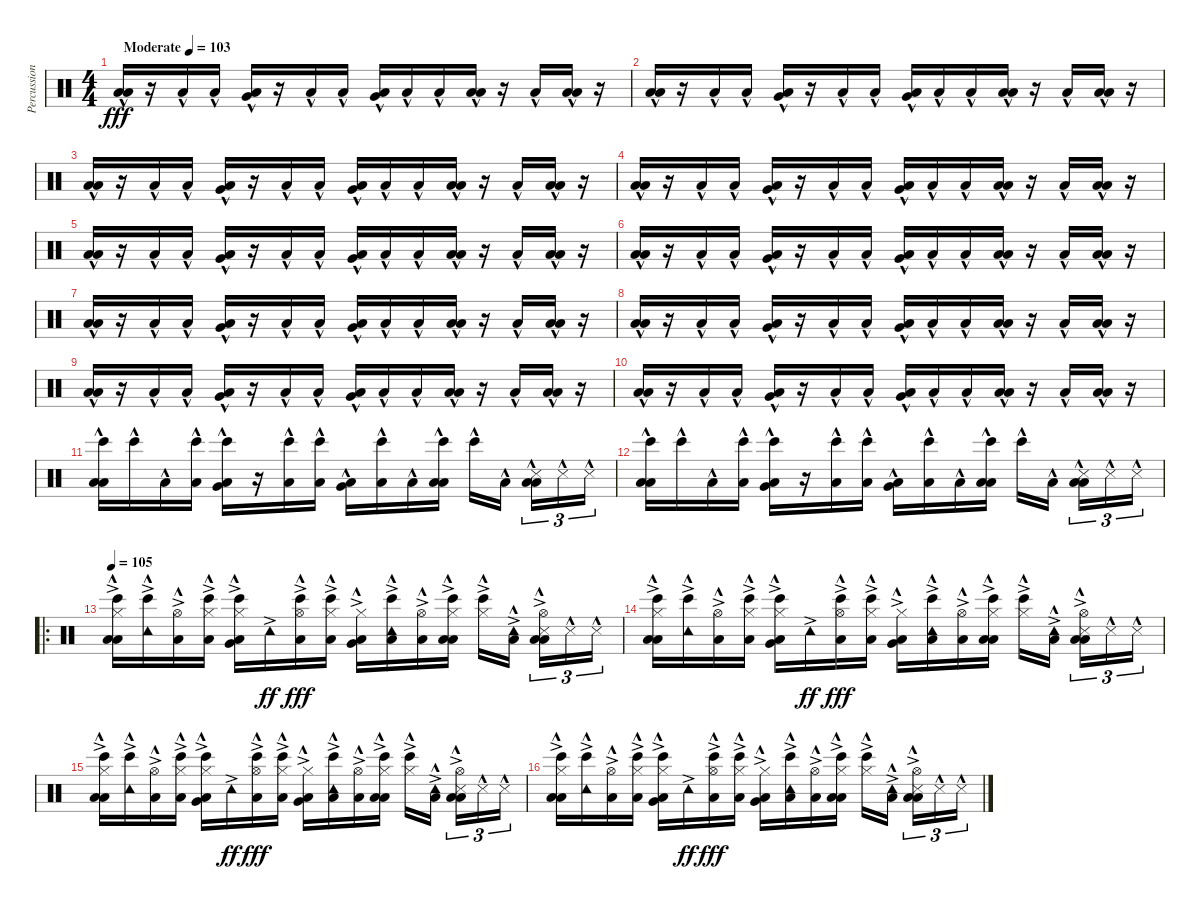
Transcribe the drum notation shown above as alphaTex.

\track ("Percussion" "Percussion") {instrument percussion}
\staff {score}
\articulation defaults
\ts (4 4)
\tempo (103 "Moderate")
\clef neutral
\ks c
("Low Floor Tom (hit)"{hac} "Low Floor Tom (hit)"{hac}).16{dy fff volume 7} r.16{volume 16} "Low Floor Tom (hit)"{hac}.16 "Low Floor Tom (hit)"{hac}.16 ("Very Low Tom (hit)"{hac} "Low Floor Tom (hit)"{hac}).16 r.16 "Low Floor Tom (hit)"{hac}.16 "Low Floor Tom (hit)"{hac}.16 ("Very Low Tom (hit)"{hac} "Low Floor Tom (hit)"{hac}).16 "Low Floor Tom (hit)"{hac}.16 "Low Floor Tom (hit)"{hac}.16 ("Low Floor Tom (hit)"{hac} "Low Floor Tom (hit)"{hac}).16 r.16 "Low Floor Tom (hit)"{hac}.16 ("Low Floor Tom (hit)"{hac} "Low Floor Tom (hit)"{hac}).16 r.16 |
("Low Floor Tom (hit)"{hac} "Low Floor Tom (hit)"{hac}).16 r.16 "Low Floor Tom (hit)"{hac}.16 "Low Floor Tom (hit)"{hac}.16 ("Very Low Tom (hit)"{hac} "Low Floor Tom (hit)"{hac}).16 r.16 "Low Floor Tom (hit)"{hac}.16 "Low Floor Tom (hit)"{hac}.16 ("Very Low Tom (hit)"{hac} "Low Floor Tom (hit)"{hac}).16 "Low Floor Tom (hit)"{hac}.16 "Low Floor Tom (hit)"{hac}.16 ("Low Floor Tom (hit)"{hac} "Low Floor Tom (hit)"{hac}).16 r.16 "Low Floor Tom (hit)"{hac}.16 ("Low Floor Tom (hit)"{hac} "Low Floor Tom (hit)"{hac}).16 r.16 |
("Low Floor Tom (hit)"{hac} "Low Floor Tom (hit)"{hac}).16 r.16 "Low Floor Tom (hit)"{hac}.16 "Low Floor Tom (hit)"{hac}.16 ("Very Low Tom (hit)"{hac} "Low Floor Tom (hit)"{hac}).16 r.16 "Low Floor Tom (hit)"{hac}.16 "Low Floor Tom (hit)"{hac}.16 ("Very Low Tom (hit)"{hac} "Low Floor Tom (hit)"{hac}).16 "Low Floor Tom (hit)"{hac}.16 "Low Floor Tom (hit)"{hac}.16 ("Low Floor Tom (hit)"{hac} "Low Floor Tom (hit)"{hac}).16 r.16 "Low Floor Tom (hit)"{hac}.16 ("Low Floor Tom (hit)"{hac} "Low Floor Tom (hit)"{hac}).16 r.16 |
("Low Floor Tom (hit)"{hac} "Low Floor Tom (hit)"{hac}).16 r.16 "Low Floor Tom (hit)"{hac}.16 "Low Floor Tom (hit)"{hac}.16 ("Very Low Tom (hit)"{hac} "Low Floor Tom (hit)"{hac}).16 r.16 "Low Floor Tom (hit)"{hac}.16 "Low Floor Tom (hit)"{hac}.16 ("Very Low Tom (hit)"{hac} "Low Floor Tom (hit)"{hac}).16 "Low Floor Tom (hit)"{hac}.16 "Low Floor Tom (hit)"{hac}.16 ("Low Floor Tom (hit)"{hac} "Low Floor Tom (hit)"{hac}).16 r.16 "Low Floor Tom (hit)"{hac}.16 ("Low Floor Tom (hit)"{hac} "Low Floor Tom (hit)"{hac}).16 r.16 |
("Low Floor Tom (hit)"{hac} "Low Floor Tom (hit)"{hac}).16 r.16 "Low Floor Tom (hit)"{hac}.16 "Low Floor Tom (hit)"{hac}.16 ("Very Low Tom (hit)"{hac} "Low Floor Tom (hit)"{hac}).16 r.16 "Low Floor Tom (hit)"{hac}.16 "Low Floor Tom (hit)"{hac}.16 ("Very Low Tom (hit)"{hac} "Low Floor Tom (hit)"{hac}).16 "Low Floor Tom (hit)"{hac}.16 "Low Floor Tom (hit)"{hac}.16 ("Low Floor Tom (hit)"{hac} "Low Floor Tom (hit)"{hac}).16 r.16 "Low Floor Tom (hit)"{hac}.16 ("Low Floor Tom (hit)"{hac} "Low Floor Tom (hit)"{hac}).16 r.16 |
("Low Floor Tom (hit)"{hac} "Low Floor Tom (hit)"{hac}).16 r.16 "Low Floor Tom (hit)"{hac}.16 "Low Floor Tom (hit)"{hac}.16 ("Very Low Tom (hit)"{hac} "Low Floor Tom (hit)"{hac}).16 r.16 "Low Floor Tom (hit)"{hac}.16 "Low Floor Tom (hit)"{hac}.16 ("Very Low Tom (hit)"{hac} "Low Floor Tom (hit)"{hac}).16 "Low Floor Tom (hit)"{hac}.16 "Low Floor Tom (hit)"{hac}.16 ("Low Floor Tom (hit)"{hac} "Low Floor Tom (hit)"{hac}).16 r.16 "Low Floor Tom (hit)"{hac}.16 ("Low Floor Tom (hit)"{hac} "Low Floor Tom (hit)"{hac}).16 r.16 |
("Low Floor Tom (hit)"{hac} "Low Floor Tom (hit)"{hac}).16 r.16 "Low Floor Tom (hit)"{hac}.16 "Low Floor Tom (hit)"{hac}.16 ("Very Low Tom (hit)"{hac} "Low Floor Tom (hit)"{hac}).16 r.16 "Low Floor Tom (hit)"{hac}.16 "Low Floor Tom (hit)"{hac}.16 ("Very Low Tom (hit)"{hac} "Low Floor Tom (hit)"{hac}).16 "Low Floor Tom (hit)"{hac}.16 "Low Floor Tom (hit)"{hac}.16 ("Low Floor Tom (hit)"{hac} "Low Floor Tom (hit)"{hac}).16 r.16 "Low Floor Tom (hit)"{hac}.16 ("Low Floor Tom (hit)"{hac} "Low Floor Tom (hit)"{hac}).16 r.16 |
("Low Floor Tom (hit)"{hac} "Low Floor Tom (hit)"{hac}).16 r.16 "Low Floor Tom (hit)"{hac}.16 "Low Floor Tom (hit)"{hac}.16 ("Very Low Tom (hit)"{hac} "Low Floor Tom (hit)"{hac}).16 r.16 "Low Floor Tom (hit)"{hac}.16 "Low Floor Tom (hit)"{hac}.16 ("Very Low Tom (hit)"{hac} "Low Floor Tom (hit)"{hac}).16 "Low Floor Tom (hit)"{hac}.16 "Low Floor Tom (hit)"{hac}.16 ("Low Floor Tom (hit)"{hac} "Low Floor Tom (hit)"{hac}).16 r.16 "Low Floor Tom (hit)"{hac}.16 ("Low Floor Tom (hit)"{hac} "Low Floor Tom (hit)"{hac}).16 r.16 |
("Low Floor Tom (hit)"{hac} "Low Floor Tom (hit)"{hac}).16 r.16 "Low Floor Tom (hit)"{hac}.16 "Low Floor Tom (hit)"{hac}.16 ("Very Low Tom (hit)"{hac} "Low Floor Tom (hit)"{hac}).16 r.16 "Low Floor Tom (hit)"{hac}.16 "Low Floor Tom (hit)"{hac}.16 ("Very Low Tom (hit)"{hac} "Low Floor Tom (hit)"{hac}).16 "Low Floor Tom (hit)"{hac}.16 "Low Floor Tom (hit)"{hac}.16 ("Low Floor Tom (hit)"{hac} "Low Floor Tom (hit)"{hac}).16 r.16 "Low Floor Tom (hit)"{hac}.16 ("Low Floor Tom (hit)"{hac} "Low Floor Tom (hit)"{hac}).16 r.16 |
("Low Floor Tom (hit)"{hac} "Low Floor Tom (hit)"{hac}).16 r.16 "Low Floor Tom (hit)"{hac}.16 "Low Floor Tom (hit)"{hac}.16 ("Very Low Tom (hit)"{hac} "Low Floor Tom (hit)"{hac}).16 r.16 "Low Floor Tom (hit)"{hac}.16 "Low Floor Tom (hit)"{hac}.16 ("Very Low Tom (hit)"{hac} "Low Floor Tom (hit)"{hac}).16 "Low Floor Tom (hit)"{hac}.16 "Low Floor Tom (hit)"{hac}.16 ("Low Floor Tom (hit)"{hac} "Low Floor Tom (hit)"{hac}).16 r.16 "Low Floor Tom (hit)"{hac}.16 ("Low Floor Tom (hit)"{hac} "Low Floor Tom (hit)"{hac}).16 r.16 |
("Bongo High (hit)"{hac} "Low Floor Tom (hit)"{hac} "Low Floor Tom (hit)"{hac}).16 "Bongo High (hit)"{hac}.16 "Low Floor Tom (hit)"{hac}.16 ("Bongo High (hit)"{hac} "Low Floor Tom (hit)"{hac}).16 ("Bongo High (hit)"{hac} "Very Low Tom (hit)"{hac} "Low Floor Tom (hit)"{hac}).16 r.16 ("Bongo High (hit)"{hac} "Low Floor Tom (hit)"{hac}).16 ("Bongo High (hit)"{hac} "Low Floor Tom (hit)"{hac}).16 ("Very Low Tom (hit)"{hac} "Low Floor Tom (hit)"{hac}).16 ("Bongo High (hit)"{hac} "Low Floor Tom (hit)"{hac}).16 "Low Floor Tom (hit)"{hac}.16 ("Bongo High (hit)"{hac} "Low Floor Tom (hit)"{hac} "Low Floor Tom (hit)"{hac}).16 "Bongo High (hit)"{hac}.16 "Low Floor Tom (hit)"{hac}.16{beam splitsecondary} ("Snare (side stick) 3"{hac} "Low Floor Tom (hit)"{hac} "Low Floor Tom (hit)"{hac}).16{tu (3 2)} "Snare (side stick) 3"{hac}.16{tu (3 2)} "Snare (side stick) 3"{hac}.16{tu (3 2)} |
("Bongo High (hit)"{hac} "Low Floor Tom (hit)"{hac} "Low Floor Tom (hit)"{hac}).16 "Bongo High (hit)"{hac}.16 "Low Floor Tom (hit)"{hac}.16 ("Bongo High (hit)"{hac} "Low Floor Tom (hit)"{hac}).16 ("Bongo High (hit)"{hac} "Very Low Tom (hit)"{hac} "Low Floor Tom (hit)"{hac}).16 r.16 ("Bongo High (hit)"{hac} "Low Floor Tom (hit)"{hac}).16 ("Bongo High (hit)"{hac} "Low Floor Tom (hit)"{hac}).16 ("Very Low Tom (hit)"{hac} "Low Floor Tom (hit)"{hac}).16 ("Bongo High (hit)"{hac} "Low Floor Tom (hit)"{hac}).16 "Low Floor Tom (hit)"{hac}.16 ("Bongo High (hit)"{hac} "Low Floor Tom (hit)"{hac} "Low Floor Tom (hit)"{hac}).16 "Bongo High (hit)"{hac}.16 "Low Floor Tom (hit)"{hac}.16{beam splitsecondary} ("Snare (side stick) 3"{hac} "Low Floor Tom (hit)"{hac} "Low Floor Tom (hit)"{hac}).16{tu (3 2)} "Snare (side stick) 3"{hac}.16{tu (3 2)} "Snare (side stick) 3"{hac}.16{tu (3 2)} |
\ro
\tempo 105
("Hi-Hat (closed)"{ac} "Bongo High (hit)"{hac} "Low Floor Tom (hit)"{hac} "Low Floor Tom (hit)"{hac}).16 ("Tambourine (hit)"{ac} "Bongo High (hit)"{hac}).16 ("Hi-Hat (open)"{ac} "Low Floor Tom (hit)"{hac}).16 ("Hi-Hat (closed)"{ac} "Bongo High (hit)"{hac} "Low Floor Tom (hit)"{hac}).16 ("Hi-Hat (closed)"{ac} "Bongo High (hit)"{hac} "Very Low Tom (hit)"{hac} "Low Floor Tom (hit)"{hac}).16 "Tambourine (hit)"{ac}.16{dy ff} ("Hi-Hat (open)"{ac} "Bongo High (hit)"{hac} "Low Floor Tom (hit)"{hac}).16{dy fff} ("Hi-Hat (closed)"{ac} "Bongo High (hit)"{hac} "Low Floor Tom (hit)"{hac}).16 ("Hi-Hat (closed)"{ac} "Very Low Tom (hit)"{hac} "Low Floor Tom (hit)"{hac}).16 ("Tambourine (hit)"{ac} "Bongo High (hit)"{hac} "Low Floor Tom (hit)"{hac}).16 ("Hi-Hat (open)"{ac} "Low Floor Tom (hit)"{hac}).16 ("Hi-Hat (closed)"{ac} "Bongo High (hit)"{hac} "Low Floor Tom (hit)"{hac} "Low Floor Tom (hit)"{hac}).16 ("Hi-Hat (closed)"{ac} "Bongo High (hit)"{hac}).16 ("Tambourine (hit)"{ac} "Low Floor Tom (hit)"{hac}).16{beam splitsecondary} ("Hi-Hat (open)"{ac} "Snare (side stick) 3"{hac} "Low Floor Tom (hit)"{hac} "Low Floor Tom (hit)"{hac}).16{tu (3 2)} "Snare (side stick) 3"{hac}.16{tu (3 2)} "Snare (side stick) 3"{hac}.16{tu (3 2)} |
("Hi-Hat (closed)"{ac} "Bongo High (hit)"{hac} "Low Floor Tom (hit)"{hac} "Low Floor Tom (hit)"{hac}).16 ("Tambourine (hit)"{ac} "Bongo High (hit)"{hac}).16 ("Hi-Hat (open)"{ac} "Low Floor Tom (hit)"{hac}).16 ("Hi-Hat (closed)"{ac} "Bongo High (hit)"{hac} "Low Floor Tom (hit)"{hac}).16 ("Hi-Hat (closed)"{ac} "Bongo High (hit)"{hac} "Very Low Tom (hit)"{hac} "Low Floor Tom (hit)"{hac}).16 "Tambourine (hit)"{ac}.16{dy ff} ("Hi-Hat (open)"{ac} "Bongo High (hit)"{hac} "Low Floor Tom (hit)"{hac}).16{dy fff} ("Hi-Hat (closed)"{ac} "Bongo High (hit)"{hac} "Low Floor Tom (hit)"{hac}).16 ("Hi-Hat (closed)"{ac} "Very Low Tom (hit)"{hac} "Low Floor Tom (hit)"{hac}).16 ("Tambourine (hit)"{ac} "Bongo High (hit)"{hac} "Low Floor Tom (hit)"{hac}).16 ("Hi-Hat (open)"{ac} "Low Floor Tom (hit)"{hac}).16 ("Hi-Hat (closed)"{ac} "Bongo High (hit)"{hac} "Low Floor Tom (hit)"{hac} "Low Floor Tom (hit)"{hac}).16 ("Hi-Hat (closed)"{ac} "Bongo High (hit)"{hac}).16 ("Tambourine (hit)"{ac} "Low Floor Tom (hit)"{hac}).16{beam splitsecondary} ("Hi-Hat (open)"{ac} "Snare (side stick) 3"{hac} "Low Floor Tom (hit)"{hac} "Low Floor Tom (hit)"{hac}).16{tu (3 2)} "Snare (side stick) 3"{hac}.16{tu (3 2)} "Snare (side stick) 3"{hac}.16{tu (3 2)} |
("Hi-Hat (closed)"{ac} "Bongo High (hit)"{hac} "Low Floor Tom (hit)"{hac} "Low Floor Tom (hit)"{hac}).16 ("Tambourine (hit)"{ac} "Bongo High (hit)"{hac}).16 ("Hi-Hat (open)"{ac} "Low Floor Tom (hit)"{hac}).16 ("Hi-Hat (closed)"{ac} "Bongo High (hit)"{hac} "Low Floor Tom (hit)"{hac}).16 ("Hi-Hat (closed)"{ac} "Bongo High (hit)"{hac} "Very Low Tom (hit)"{hac} "Low Floor Tom (hit)"{hac}).16 "Tambourine (hit)"{ac}.16{dy ff} ("Hi-Hat (open)"{ac} "Bongo High (hit)"{hac} "Low Floor Tom (hit)"{hac}).16{dy fff} ("Hi-Hat (closed)"{ac} "Bongo High (hit)"{hac} "Low Floor Tom (hit)"{hac}).16 ("Hi-Hat (closed)"{ac} "Very Low Tom (hit)"{hac} "Low Floor Tom (hit)"{hac}).16 ("Tambourine (hit)"{ac} "Bongo High (hit)"{hac} "Low Floor Tom (hit)"{hac}).16 ("Hi-Hat (open)"{ac} "Low Floor Tom (hit)"{hac}).16 ("Hi-Hat (closed)"{ac} "Bongo High (hit)"{hac} "Low Floor Tom (hit)"{hac} "Low Floor Tom (hit)"{hac}).16 ("Hi-Hat (closed)"{ac} "Bongo High (hit)"{hac}).16 ("Tambourine (hit)"{ac} "Low Floor Tom (hit)"{hac}).16{beam splitsecondary} ("Hi-Hat (open)"{ac} "Snare (side stick) 3"{hac} "Low Floor Tom (hit)"{hac} "Low Floor Tom (hit)"{hac}).16{tu (3 2)} "Snare (side stick) 3"{hac}.16{tu (3 2)} "Snare (side stick) 3"{hac}.16{tu (3 2)} |
("Hi-Hat (closed)"{ac} "Bongo High (hit)"{hac} "Low Floor Tom (hit)"{hac} "Low Floor Tom (hit)"{hac}).16 ("Tambourine (hit)"{ac} "Bongo High (hit)"{hac}).16 ("Hi-Hat (open)"{ac} "Low Floor Tom (hit)"{hac}).16 ("Hi-Hat (closed)"{ac} "Bongo High (hit)"{hac} "Low Floor Tom (hit)"{hac}).16 ("Hi-Hat (closed)"{ac} "Bongo High (hit)"{hac} "Very Low Tom (hit)"{hac} "Low Floor Tom (hit)"{hac}).16 "Tambourine (hit)"{ac}.16{dy ff} ("Hi-Hat (open)"{ac} "Bongo High (hit)"{hac} "Low Floor Tom (hit)"{hac}).16{dy fff} ("Hi-Hat (closed)"{ac} "Bongo High (hit)"{hac} "Low Floor Tom (hit)"{hac}).16 ("Hi-Hat (closed)"{ac} "Very Low Tom (hit)"{hac} "Low Floor Tom (hit)"{hac}).16 ("Tambourine (hit)"{ac} "Bongo High (hit)"{hac} "Low Floor Tom (hit)"{hac}).16 ("Hi-Hat (open)"{ac} "Low Floor Tom (hit)"{hac}).16 ("Hi-Hat (closed)"{ac} "Bongo High (hit)"{hac} "Low Floor Tom (hit)"{hac} "Low Floor Tom (hit)"{hac}).16 ("Hi-Hat (closed)"{ac} "Bongo High (hit)"{hac}).16 ("Tambourine (hit)"{ac} "Low Floor Tom (hit)"{hac}).16{beam splitsecondary} ("Hi-Hat (open)"{ac} "Snare (side stick) 3"{hac} "Low Floor Tom (hit)"{hac} "Low Floor Tom (hit)"{hac}).16{tu (3 2)} "Snare (side stick) 3"{hac}.16{tu (3 2)} "Snare (side stick) 3"{hac}.16{tu (3 2)}
